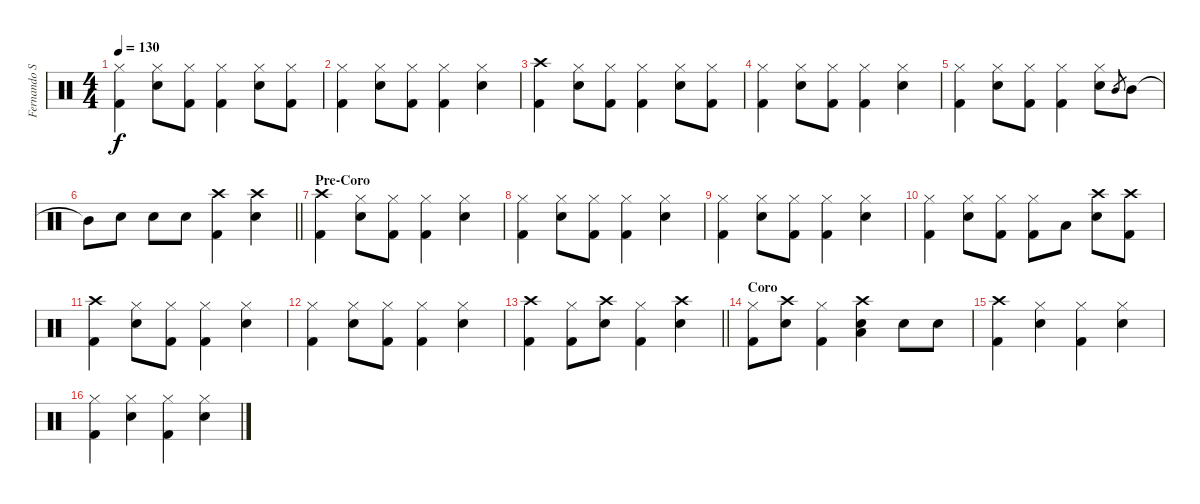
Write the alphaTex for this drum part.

\track ("Fernando Scarcella" "Fernando S") {instrument percussion}
\staff {score}
\articulation defaults
\ts (4 4)
\tempo 130
\clef neutral
\ks c
("Hi-Hat (closed)" "Kick (hit) 2").4{dy f} ("Hi-Hat (closed)" "Snare (hit) 2").8 ("Hi-Hat (closed)" "Kick (hit) 2").8 ("Hi-Hat (closed)" "Kick (hit) 2").4 ("Hi-Hat (closed)" "Snare (hit) 2").8 ("Hi-Hat (closed)" "Kick (hit) 2").8 |
("Hi-Hat (closed)" "Kick (hit) 2").4 ("Hi-Hat (closed)" "Snare (hit) 2").8 ("Hi-Hat (closed)" "Kick (hit) 2").8 ("Hi-Hat (closed)" "Kick (hit) 2").4 ("Hi-Hat (closed)" "Snare (hit) 2").4 |
("Crash high (hit)" "Kick (hit) 2").4 ("Hi-Hat (closed)" "Snare (hit) 2").8 ("Hi-Hat (closed)" "Kick (hit) 2").8 ("Hi-Hat (closed)" "Kick (hit) 2").4 ("Hi-Hat (closed)" "Snare (hit) 2").8 ("Hi-Hat (closed)" "Kick (hit) 2").8 |
("Hi-Hat (closed)" "Kick (hit) 2").4 ("Hi-Hat (closed)" "Snare (hit) 2").8 ("Hi-Hat (closed)" "Kick (hit) 2").8 ("Hi-Hat (closed)" "Kick (hit) 2").4 ("Hi-Hat (closed)" "Snare (hit) 2").4 |
("Hi-Hat (closed)" "Kick (hit) 2").4 ("Hi-Hat (closed)" "Snare (hit) 2").8 ("Hi-Hat (closed)" "Kick (hit) 2").8 ("Hi-Hat (closed)" "Kick (hit) 2").4 ("Hi-Hat (closed)" "Snare (hit) 2").8 "Mid Tom (hit)".8{gr} "Mid Tom (hit)".8 |
\barLineRight lightlight "Mid Tom (hit)"{t}.8 "Snare (hit) 2".8 "Snare (hit) 2".8 "Snare (hit) 2".8
("Crash high (hit)" "Kick (hit) 2").4 ("Crash high (hit)" "Snare (hit) 2").4 |
\section ("" "Pre-Coro")
("Crash high (hit)" "Kick (hit) 2").4 ("Hi-Hat (closed)" "Snare (hit) 2").8 ("Hi-Hat (closed)" "Kick (hit) 2").8 ("Hi-Hat (closed)" "Kick (hit) 2").4 ("Hi-Hat (closed)" "Snare (hit) 2").4 |
("Hi-Hat (closed)" "Kick (hit) 2").4 ("Hi-Hat (closed)" "Snare (hit) 2").8 ("Hi-Hat (closed)" "Kick (hit) 2").8 ("Hi-Hat (closed)" "Kick (hit) 2").4 ("Hi-Hat (closed)" "Snare (hit) 2").4 |
("Hi-Hat (closed)" "Kick (hit) 2").4 ("Hi-Hat (closed)" "Snare (hit) 2").8 ("Hi-Hat (closed)" "Kick (hit) 2").8 ("Hi-Hat (closed)" "Kick (hit) 2").4 ("Hi-Hat (closed)" "Snare (hit) 2").4 |
("Hi-Hat (closed)" "Kick (hit) 2").4 ("Hi-Hat (closed)" "Snare (hit) 2").8 ("Hi-Hat (closed)" "Kick (hit) 2").8 ("Hi-Hat (closed)" "Kick (hit) 2").8 "Low Tom (hit)".8 ("Crash high (hit)" "Snare (hit) 2").8 ("Crash high (hit)" "Kick (hit) 2").8 |
("Crash high (hit)" "Kick (hit) 2").4 ("Hi-Hat (closed)" "Snare (hit) 2").8 ("Hi-Hat (closed)" "Kick (hit) 2").8 ("Hi-Hat (closed)" "Kick (hit) 2").4 ("Hi-Hat (closed)" "Snare (hit) 2").4 |
("Hi-Hat (closed)" "Kick (hit) 2").4 ("Hi-Hat (closed)" "Snare (hit) 2").8 ("Hi-Hat (closed)" "Kick (hit) 2").8 ("Hi-Hat (closed)" "Kick (hit) 2").4 ("Hi-Hat (closed)" "Snare (hit) 2").4 |
\barLineRight lightlight
("Crash high (hit)" "Kick (hit) 2").4 ("Hi-Hat (closed)" "Kick (hit) 2").8 ("Crash high (hit)" "Snare (hit) 2").8 ("Hi-Hat (closed)" "Kick (hit) 2").4 ("Crash high (hit)" "Snare (hit) 2").4 |
\section ("" "Coro")
("Hi-Hat (closed)" "Kick (hit) 2").8 ("Crash high (hit)" "Snare (hit) 2").8 ("Hi-Hat (closed)" "Kick (hit) 2").4 ("Crash high (hit)" "Snare (hit) 2" "Low Tom (hit)").4 "Snare (hit) 2".8 "Snare (hit) 2".8 |
("Crash high (hit)" "Kick (hit) 2").4 ("Hi-Hat (closed)" "Snare (hit) 2").4 ("Hi-Hat (closed)" "Kick (hit) 2").4 ("Hi-Hat (closed)" "Snare (hit) 2").4 |
("Hi-Hat (closed)" "Kick (hit) 2").4 ("Hi-Hat (closed)" "Snare (hit) 2").4 ("Hi-Hat (closed)" "Kick (hit) 2").4 ("Hi-Hat (closed)" "Snare (hit) 2").4
